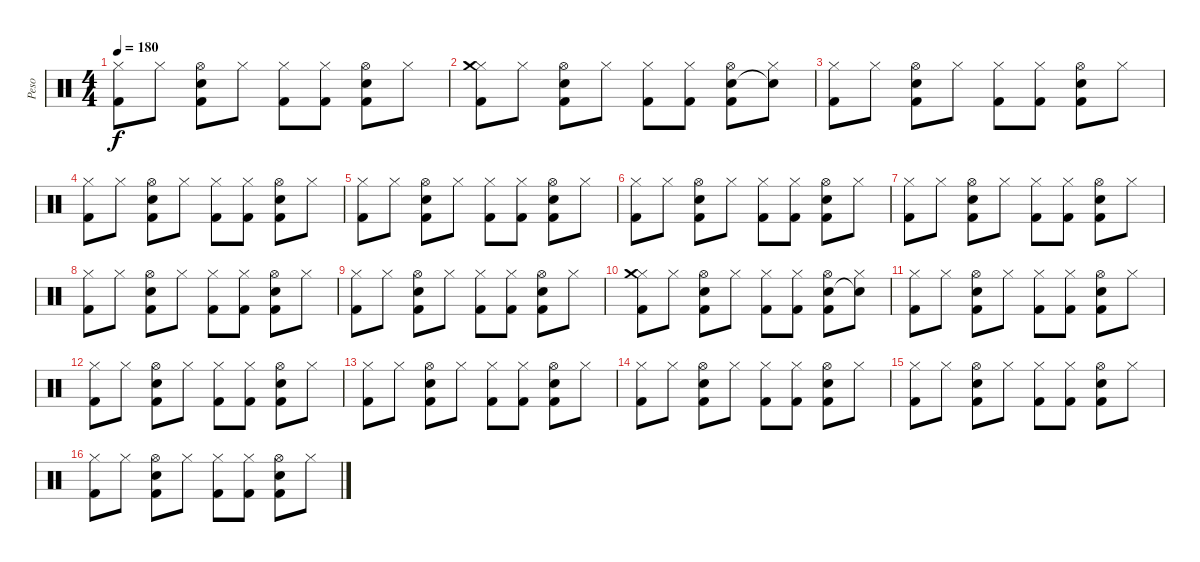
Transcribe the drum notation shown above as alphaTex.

\track ("Peso" "Peso") {instrument percussion}
\staff {score}
\articulation defaults
\ts (4 4)
\tempo 180
\clef neutral
\ks c
("Hi-Hat (closed)" "Kick (hit) 2").8{dy f} "Hi-Hat (closed)".8 ("Hi-Hat (open)" "Electric Snare (hit)" "Kick (hit) 2").8 "Hi-Hat (closed)".8 ("Hi-Hat (closed)" "Kick (hit) 2").8 ("Hi-Hat (closed)" "Kick (hit) 2").8 ("Hi-Hat (open)" "Electric Snare (hit)" "Kick (hit) 2").8 "Hi-Hat (closed)".8 |
("Hi-Hat (closed)" "Crash medium (hit)" "Kick (hit) 2").8 "Hi-Hat (closed)".8 ("Hi-Hat (open)" "Electric Snare (hit)" "Kick (hit) 2").8 "Hi-Hat (closed)".8 ("Hi-Hat (closed)" "Kick (hit) 2").8 ("Hi-Hat (closed)" "Kick (hit) 2").8 ("Hi-Hat (open)" "Electric Snare (hit)" "Kick (hit) 2").8 ("Hi-Hat (closed)" "Snare (hit)"{t}).8 |
("Hi-Hat (closed)" "Kick (hit) 2").8 "Hi-Hat (closed)".8 ("Hi-Hat (open)" "Electric Snare (hit)" "Kick (hit) 2").8 "Hi-Hat (closed)".8 ("Hi-Hat (closed)" "Kick (hit) 2").8 ("Hi-Hat (closed)" "Kick (hit) 2").8 ("Hi-Hat (open)" "Electric Snare (hit)" "Kick (hit) 2").8 "Hi-Hat (closed)".8 |
("Hi-Hat (closed)" "Kick (hit) 2").8 "Hi-Hat (closed)".8 ("Hi-Hat (open)" "Electric Snare (hit)" "Kick (hit) 2").8 "Hi-Hat (closed)".8 ("Hi-Hat (closed)" "Kick (hit) 2").8 ("Hi-Hat (closed)" "Kick (hit) 2").8 ("Hi-Hat (open)" "Electric Snare (hit)" "Kick (hit) 2").8 "Hi-Hat (closed)".8 |
("Hi-Hat (closed)" "Kick (hit) 2").8 "Hi-Hat (closed)".8 ("Hi-Hat (open)" "Electric Snare (hit)" "Kick (hit) 2").8 "Hi-Hat (closed)".8 ("Hi-Hat (closed)" "Kick (hit) 2").8 ("Hi-Hat (closed)" "Kick (hit) 2").8 ("Hi-Hat (open)" "Electric Snare (hit)" "Kick (hit) 2").8 "Hi-Hat (closed)".8 |
("Hi-Hat (closed)" "Kick (hit) 2").8 "Hi-Hat (closed)".8 ("Hi-Hat (open)" "Electric Snare (hit)" "Kick (hit) 2").8 "Hi-Hat (closed)".8 ("Hi-Hat (closed)" "Kick (hit) 2").8 ("Hi-Hat (closed)" "Kick (hit) 2").8 ("Hi-Hat (open)" "Electric Snare (hit)" "Kick (hit) 2").8 "Hi-Hat (closed)".8 |
("Hi-Hat (closed)" "Kick (hit) 2").8 "Hi-Hat (closed)".8 ("Hi-Hat (open)" "Electric Snare (hit)" "Kick (hit) 2").8 "Hi-Hat (closed)".8 ("Hi-Hat (closed)" "Kick (hit) 2").8 ("Hi-Hat (closed)" "Kick (hit) 2").8 ("Hi-Hat (open)" "Electric Snare (hit)" "Kick (hit) 2").8 "Hi-Hat (closed)".8 |
("Hi-Hat (closed)" "Kick (hit) 2").8 "Hi-Hat (closed)".8 ("Hi-Hat (open)" "Electric Snare (hit)" "Kick (hit) 2").8 "Hi-Hat (closed)".8 ("Hi-Hat (closed)" "Kick (hit) 2").8 ("Hi-Hat (closed)" "Kick (hit) 2").8 ("Hi-Hat (open)" "Electric Snare (hit)" "Kick (hit) 2").8 "Hi-Hat (closed)".8 |
("Hi-Hat (closed)" "Kick (hit) 2").8 "Hi-Hat (closed)".8 ("Hi-Hat (open)" "Electric Snare (hit)" "Kick (hit) 2").8 "Hi-Hat (closed)".8 ("Hi-Hat (closed)" "Kick (hit) 2").8 ("Hi-Hat (closed)" "Kick (hit) 2").8 ("Hi-Hat (open)" "Electric Snare (hit)" "Kick (hit) 2").8 "Hi-Hat (closed)".8 |
("Hi-Hat (closed)" "Crash medium (hit)" "Kick (hit) 2").8 "Hi-Hat (closed)".8 ("Hi-Hat (open)" "Electric Snare (hit)" "Kick (hit) 2").8 "Hi-Hat (closed)".8 ("Hi-Hat (closed)" "Kick (hit) 2").8 ("Hi-Hat (closed)" "Kick (hit) 2").8 ("Hi-Hat (open)" "Electric Snare (hit)" "Kick (hit) 2").8 ("Hi-Hat (closed)" "Snare (hit)"{t}).8 |
("Hi-Hat (closed)" "Kick (hit) 2").8 "Hi-Hat (closed)".8 ("Hi-Hat (open)" "Electric Snare (hit)" "Kick (hit) 2").8 "Hi-Hat (closed)".8 ("Hi-Hat (closed)" "Kick (hit) 2").8 ("Hi-Hat (closed)" "Kick (hit) 2").8 ("Hi-Hat (open)" "Electric Snare (hit)" "Kick (hit) 2").8 "Hi-Hat (closed)".8 |
("Hi-Hat (closed)" "Kick (hit) 2").8 "Hi-Hat (closed)".8 ("Hi-Hat (open)" "Electric Snare (hit)" "Kick (hit) 2").8 "Hi-Hat (closed)".8 ("Hi-Hat (closed)" "Kick (hit) 2").8 ("Hi-Hat (closed)" "Kick (hit) 2").8 ("Hi-Hat (open)" "Electric Snare (hit)" "Kick (hit) 2").8 "Hi-Hat (closed)".8 |
("Hi-Hat (closed)" "Kick (hit) 2").8 "Hi-Hat (closed)".8 ("Hi-Hat (open)" "Electric Snare (hit)" "Kick (hit) 2").8 "Hi-Hat (closed)".8 ("Hi-Hat (closed)" "Kick (hit) 2").8 ("Hi-Hat (closed)" "Kick (hit) 2").8 ("Hi-Hat (open)" "Electric Snare (hit)" "Kick (hit) 2").8 "Hi-Hat (closed)".8 |
("Hi-Hat (closed)" "Kick (hit) 2").8 "Hi-Hat (closed)".8 ("Hi-Hat (open)" "Electric Snare (hit)" "Kick (hit) 2").8 "Hi-Hat (closed)".8 ("Hi-Hat (closed)" "Kick (hit) 2").8 ("Hi-Hat (closed)" "Kick (hit) 2").8 ("Hi-Hat (open)" "Electric Snare (hit)" "Kick (hit) 2").8 "Hi-Hat (closed)".8 |
("Hi-Hat (closed)" "Kick (hit) 2").8 "Hi-Hat (closed)".8 ("Hi-Hat (open)" "Electric Snare (hit)" "Kick (hit) 2").8 "Hi-Hat (closed)".8 ("Hi-Hat (closed)" "Kick (hit) 2").8 ("Hi-Hat (closed)" "Kick (hit) 2").8 ("Hi-Hat (open)" "Electric Snare (hit)" "Kick (hit) 2").8 "Hi-Hat (closed)".8 |
("Hi-Hat (closed)" "Kick (hit) 2").8 "Hi-Hat (closed)".8 ("Hi-Hat (open)" "Electric Snare (hit)" "Kick (hit) 2").8 "Hi-Hat (closed)".8 ("Hi-Hat (closed)" "Kick (hit) 2").8 ("Hi-Hat (closed)" "Kick (hit) 2").8 ("Hi-Hat (open)" "Electric Snare (hit)" "Kick (hit) 2").8 "Hi-Hat (closed)".8
